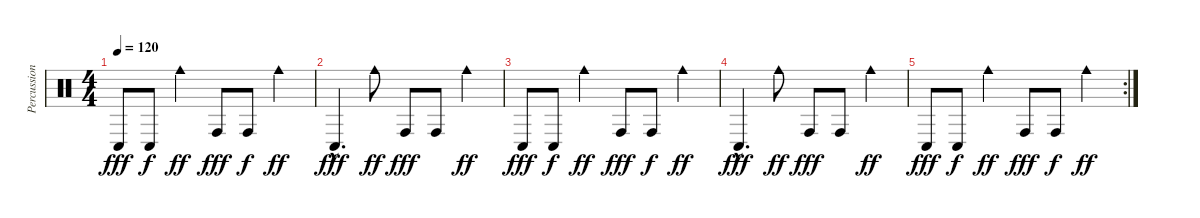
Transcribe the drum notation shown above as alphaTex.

\track ("Percussions" "Percussion") {instrument percussion}
\staff {score}
\articulation defaults
\ts (4 4)
\tempo 120
\clef neutral
\ks c "Conga low (hit)".8{dy fff} "Conga low (hit)".8{dy f} "Cowbell medium (hit)".4{dy ff} "Conga high (hit)".8{dy fff} "Conga high (hit)".8{dy f} "Cowbell medium (hit)".4{dy ff}
|
"Conga low (hit)"{hac}.4{d dy fff} "Cowbell medium (hit)".8{dy ff} "Conga high (hit)".8{dy fff} "Conga high (hit)".8 "Cowbell medium (hit)".4{dy ff} |
"Conga low (hit)".8{dy fff} "Conga low (hit)".8{dy f} "Cowbell medium (hit)".4{dy ff} "Conga high (hit)".8{dy fff} "Conga high (hit)".8{dy f} "Cowbell medium (hit)".4{dy ff} |
"Conga low (hit)"{hac}.4{d dy fff} "Cowbell medium (hit)".8{dy ff} "Conga high (hit)".8{dy fff} "Conga high (hit)".8 "Cowbell medium (hit)".4{dy ff} |
\rc 2 "Conga low (hit)".8{dy fff} "Conga low (hit)".8{dy f} "Cowbell medium (hit)".4{dy ff} "Conga high (hit)".8{dy fff} "Conga high (hit)".8{dy f} "Cowbell medium (hit)".4{dy ff}
